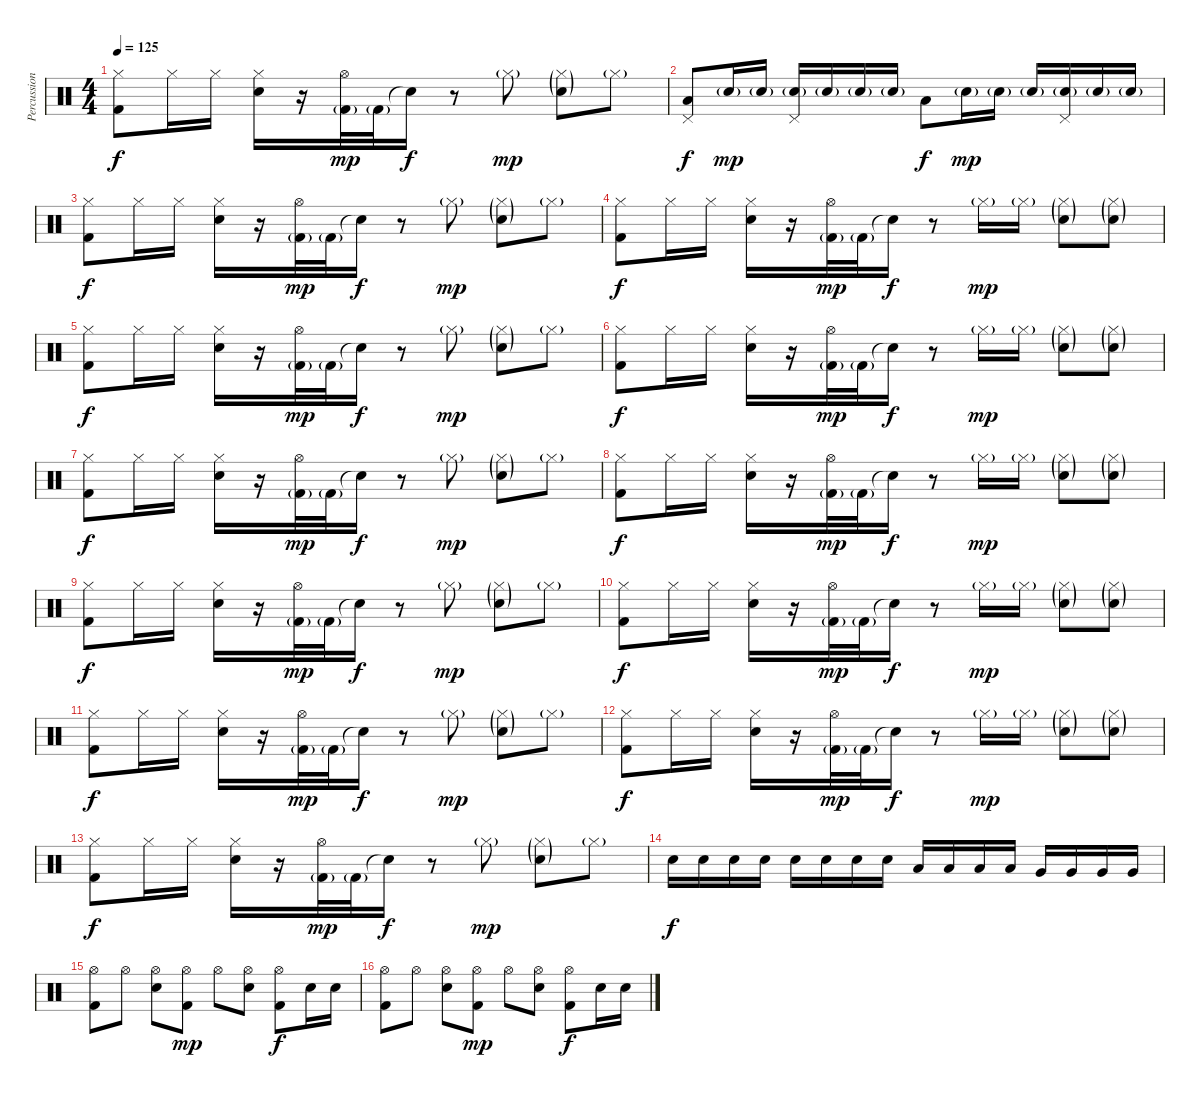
\track ("Percussion" "Percussion") {instrument percussion}
\staff {score}
\articulation defaults
\ts (4 4)
\tempo 125
\clef neutral
\ks c
("Hi-Hat (closed)" "Kick (hit) 2").8{dy f} "Hi-Hat (closed)".16 "Hi-Hat (closed)".16 ("Hi-Hat (closed)" "Snare (hit) 2").16 r.16 ("Hi-Hat (open)" "Kick (hit) 2"{g}).32{dy mp} "Kick (hit) 2"{g}.32 "Snare (hit)"{t}.16{dy f} r.8 "Hi-Hat (closed)"{g}.8{dy mp} ("Hi-Hat (closed)"{g} "Snare (hit) 2"{g}).8 "Hi-Hat (closed)"{g}.8 |
("Pedal Hi-Hat (hit)" "Low Tom (hit)").8{dy f} "Snare (hit) 2"{g}.16{dy mp} "Snare (hit) 2"{g}.16 ("Pedal Hi-Hat (hit)" "Snare (hit) 2"{g}).16 "Snare (hit) 2"{g}.16 "Snare (hit) 2"{g}.16 "Snare (hit) 2"{g}.16 "Low Tom (hit)".8{dy f} "Snare (hit) 2"{g}.16{dy mp} "Snare (hit) 2"{g}.16 "Snare (hit) 2"{g}.16 ("Pedal Hi-Hat (hit)" "Snare (hit) 2"{g}).16 "Snare (hit) 2"{g}.16 "Snare (hit) 2"{g}.16 |
("Hi-Hat (closed)" "Kick (hit) 2").8{dy f} "Hi-Hat (closed)".16 "Hi-Hat (closed)".16 ("Hi-Hat (closed)" "Snare (hit) 2").16 r.16 ("Hi-Hat (open)" "Kick (hit) 2"{g}).32{dy mp} "Kick (hit) 2"{g}.32 "Snare (hit)"{t}.16{dy f} r.8 "Hi-Hat (closed)"{g}.8{dy mp} ("Hi-Hat (closed)"{g} "Snare (hit) 2"{g}).8 "Hi-Hat (closed)"{g}.8 |
("Hi-Hat (closed)" "Kick (hit) 2").8{dy f} "Hi-Hat (closed)".16 "Hi-Hat (closed)".16 ("Hi-Hat (closed)" "Snare (hit) 2").16 r.16 ("Hi-Hat (open)" "Kick (hit) 2"{g}).32{dy mp} "Kick (hit) 2"{g}.32 "Snare (hit)"{t}.16{dy f} r.8 "Hi-Hat (closed)"{g}.16{dy mp} "Hi-Hat (closed)"{g}.16 ("Hi-Hat (closed)"{g} "Snare (hit) 2"{g}).8 ("Hi-Hat (closed)"{g} "Snare (hit) 2"{g}).8 |
("Hi-Hat (closed)" "Kick (hit) 2").8{dy f} "Hi-Hat (closed)".16 "Hi-Hat (closed)".16 ("Hi-Hat (closed)" "Snare (hit) 2").16 r.16 ("Hi-Hat (open)" "Kick (hit) 2"{g}).32{dy mp} "Kick (hit) 2"{g}.32 "Snare (hit)"{t}.16{dy f} r.8 "Hi-Hat (closed)"{g}.8{dy mp} ("Hi-Hat (closed)"{g} "Snare (hit) 2"{g}).8 "Hi-Hat (closed)"{g}.8 |
("Hi-Hat (closed)" "Kick (hit) 2").8{dy f} "Hi-Hat (closed)".16 "Hi-Hat (closed)".16 ("Hi-Hat (closed)" "Snare (hit) 2").16 r.16 ("Hi-Hat (open)" "Kick (hit) 2"{g}).32{dy mp} "Kick (hit) 2"{g}.32 "Snare (hit)"{t}.16{dy f} r.8 "Hi-Hat (closed)"{g}.16{dy mp} "Hi-Hat (closed)"{g}.16 ("Hi-Hat (closed)"{g} "Snare (hit) 2"{g}).8 ("Hi-Hat (closed)"{g} "Snare (hit) 2"{g}).8 |
("Hi-Hat (closed)" "Kick (hit) 2").8{dy f} "Hi-Hat (closed)".16 "Hi-Hat (closed)".16 ("Hi-Hat (closed)" "Snare (hit) 2").16 r.16 ("Hi-Hat (open)" "Kick (hit) 2"{g}).32{dy mp} "Kick (hit) 2"{g}.32 "Snare (hit)"{t}.16{dy f} r.8 "Hi-Hat (closed)"{g}.8{dy mp} ("Hi-Hat (closed)"{g} "Snare (hit) 2"{g}).8 "Hi-Hat (closed)"{g}.8 |
("Hi-Hat (closed)" "Kick (hit) 2").8{dy f} "Hi-Hat (closed)".16 "Hi-Hat (closed)".16 ("Hi-Hat (closed)" "Snare (hit) 2").16 r.16 ("Hi-Hat (open)" "Kick (hit) 2"{g}).32{dy mp} "Kick (hit) 2"{g}.32 "Snare (hit)"{t}.16{dy f} r.8 "Hi-Hat (closed)"{g}.16{dy mp} "Hi-Hat (closed)"{g}.16 ("Hi-Hat (closed)"{g} "Snare (hit) 2"{g}).8 ("Hi-Hat (closed)"{g} "Snare (hit) 2"{g}).8 |
("Hi-Hat (closed)" "Kick (hit) 2").8{dy f} "Hi-Hat (closed)".16 "Hi-Hat (closed)".16 ("Hi-Hat (closed)" "Snare (hit) 2").16 r.16 ("Hi-Hat (open)" "Kick (hit) 2"{g}).32{dy mp} "Kick (hit) 2"{g}.32 "Snare (hit)"{t}.16{dy f} r.8 "Hi-Hat (closed)"{g}.8{dy mp} ("Hi-Hat (closed)"{g} "Snare (hit) 2"{g}).8 "Hi-Hat (closed)"{g}.8 |
("Hi-Hat (closed)" "Kick (hit) 2").8{dy f} "Hi-Hat (closed)".16 "Hi-Hat (closed)".16 ("Hi-Hat (closed)" "Snare (hit) 2").16 r.16 ("Hi-Hat (open)" "Kick (hit) 2"{g}).32{dy mp} "Kick (hit) 2"{g}.32 "Snare (hit)"{t}.16{dy f} r.8 "Hi-Hat (closed)"{g}.16{dy mp} "Hi-Hat (closed)"{g}.16 ("Hi-Hat (closed)"{g} "Snare (hit) 2"{g}).8 ("Hi-Hat (closed)"{g} "Snare (hit) 2"{g}).8 |
("Hi-Hat (closed)" "Kick (hit) 2").8{dy f} "Hi-Hat (closed)".16 "Hi-Hat (closed)".16 ("Hi-Hat (closed)" "Snare (hit) 2").16 r.16 ("Hi-Hat (open)" "Kick (hit) 2"{g}).32{dy mp} "Kick (hit) 2"{g}.32 "Snare (hit)"{t}.16{dy f} r.8 "Hi-Hat (closed)"{g}.8{dy mp} ("Hi-Hat (closed)"{g} "Snare (hit) 2"{g}).8 "Hi-Hat (closed)"{g}.8 |
("Hi-Hat (closed)" "Kick (hit) 2").8{dy f} "Hi-Hat (closed)".16 "Hi-Hat (closed)".16 ("Hi-Hat (closed)" "Snare (hit) 2").16 r.16 ("Hi-Hat (open)" "Kick (hit) 2"{g}).32{dy mp} "Kick (hit) 2"{g}.32 "Snare (hit)"{t}.16{dy f} r.8 "Hi-Hat (closed)"{g}.16{dy mp} "Hi-Hat (closed)"{g}.16 ("Hi-Hat (closed)"{g} "Snare (hit) 2"{g}).8 ("Hi-Hat (closed)"{g} "Snare (hit) 2"{g}).8 |
("Hi-Hat (closed)" "Kick (hit) 2").8{dy f} "Hi-Hat (closed)".16 "Hi-Hat (closed)".16 ("Hi-Hat (closed)" "Snare (hit) 2").16 r.16 ("Hi-Hat (open)" "Kick (hit) 2"{g}).32{dy mp} "Kick (hit) 2"{g}.32 "Snare (hit)"{t}.16{dy f} r.8 "Hi-Hat (closed)"{g}.8{dy mp} ("Hi-Hat (closed)"{g} "Snare (hit) 2"{g}).8 "Hi-Hat (closed)"{g}.8 |
"Snare (hit) 2".16{dy f} "Snare (hit) 2".16 "Snare (hit) 2".16 "Snare (hit) 2".16 "Snare (hit) 2".16 "Snare (hit) 2".16 "Snare (hit) 2".16 "Snare (hit) 2".16 "Low Tom (hit)".16 "Low Tom (hit)".16 "Low Tom (hit)".16 "Low Tom (hit)".16 "Very Low Tom (hit)".16 "Very Low Tom (hit)".16 "Very Low Tom (hit)".16 "Very Low Tom (hit)".16 |
("Hi-Hat (open)" "Kick (hit) 2").8 "Hi-Hat (open)".8 ("Hi-Hat (open)" "Snare (hit) 2").8 ("Hi-Hat (open)" "Kick (hit) 2").8{dy mp} "Hi-Hat (open)".8 ("Hi-Hat (open)" "Snare (hit) 2").8 ("Hi-Hat (open)" "Kick (hit) 2").8{dy f} "Snare (hit) 2".16 "Snare (hit) 2".16 |
("Hi-Hat (open)" "Kick (hit) 2").8 "Hi-Hat (open)".8 ("Hi-Hat (open)" "Snare (hit) 2").8 ("Hi-Hat (open)" "Kick (hit) 2").8{dy mp} "Hi-Hat (open)".8 ("Hi-Hat (open)" "Snare (hit) 2").8 ("Hi-Hat (open)" "Kick (hit) 2").8{dy f} "Snare (hit) 2".16 "Snare (hit) 2".16
